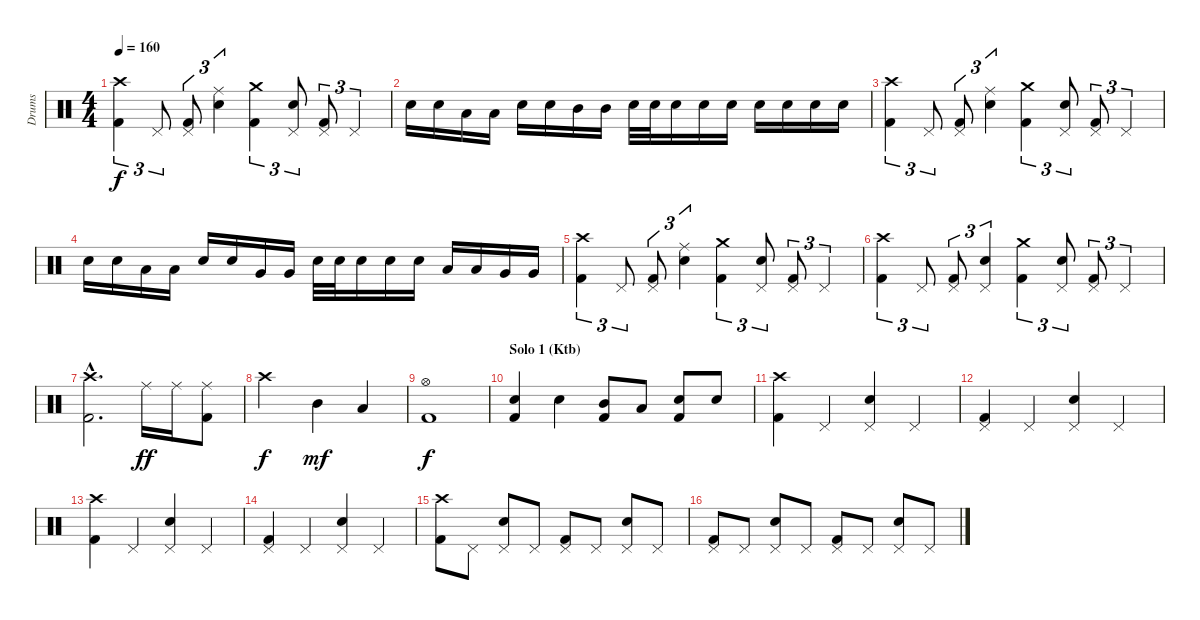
\track ("Drums" "Drums") {instrument percussion}
\staff {score}
\articulation defaults
\ts (4 4)
\tempo 160
\clef neutral
\ks c
("Crash high (hit)" "Kick (hit) 2").4{tu (3 2) dy f} "Pedal Hi-Hat (hit)".8{tu (3 2)} ("Pedal Hi-Hat (hit)" "Kick (hit) 2").8{tu (3 2)} ("Ride (middle)" "Electric Snare (hit)").4{tu (3 2)} ("Crash medium (hit)" "Kick (hit) 2").4{tu (3 2)} ("Pedal Hi-Hat (hit)" "Electric Snare (hit)").8{tu (3 2)} ("Pedal Hi-Hat (hit)" "Kick (hit) 2").8{tu (3 2)} "Pedal Hi-Hat (hit)".4{tu (3 2)} |
"Electric Snare (hit)".16 "Electric Snare (hit)".16 "Low Tom (hit)".16 "Low Tom (hit)".16 "Electric Snare (hit)".16 "Electric Snare (hit)".16 "Mid Tom (hit)".16 "Mid Tom (hit)".16 "Electric Snare (hit)".32 "Electric Snare (hit)".32 "Electric Snare (hit)".16 "Electric Snare (hit)".16 "Electric Snare (hit)".16 "Electric Snare (hit)".16 "Electric Snare (hit)".16 "Electric Snare (hit)".16 "Electric Snare (hit)".16 |
("Crash high (hit)" "Kick (hit) 2").4{tu (3 2)} "Pedal Hi-Hat (hit)".8{tu (3 2)} ("Pedal Hi-Hat (hit)" "Kick (hit) 2").8{tu (3 2)} ("Ride (middle)" "Electric Snare (hit)").4{tu (3 2)} ("Crash medium (hit)" "Kick (hit) 2").4{tu (3 2)} ("Pedal Hi-Hat (hit)" "Electric Snare (hit)").8{tu (3 2)} ("Pedal Hi-Hat (hit)" "Kick (hit) 2").8{tu (3 2)} "Pedal Hi-Hat (hit)".4{tu (3 2)} |
"Electric Snare (hit)".16 "Electric Snare (hit)".16 "Low Tom (hit)".16 "Low Tom (hit)".16 "Electric Snare (hit)".16 "Electric Snare (hit)".16 "Very Low Tom (hit)".16 "Very Low Tom (hit)".16 "Electric Snare (hit)".32 "Electric Snare (hit)".32 "Electric Snare (hit)".16 "Electric Snare (hit)".16 "Electric Snare (hit)".16 "Low Tom (hit)".16 "Low Tom (hit)".16 "Very Low Tom (hit)".16 "Very Low Tom (hit)".16 |
("Crash high (hit)" "Kick (hit) 2").4{tu (3 2)} "Pedal Hi-Hat (hit)".8{tu (3 2)} ("Pedal Hi-Hat (hit)" "Kick (hit) 2").8{tu (3 2)} ("Ride (middle)" "Electric Snare (hit)").4{tu (3 2)} ("Crash medium (hit)" "Kick (hit) 2").4{tu (3 2)} ("Pedal Hi-Hat (hit)" "Electric Snare (hit)").8{tu (3 2)} ("Pedal Hi-Hat (hit)" "Kick (hit) 2").8{tu (3 2)} "Pedal Hi-Hat (hit)".4{tu (3 2)} |
("Crash high (hit)" "Kick (hit) 2").4{tu (3 2)} "Pedal Hi-Hat (hit)".8{tu (3 2)} ("Pedal Hi-Hat (hit)" "Kick (hit) 2").8{tu (3 2)} ("Pedal Hi-Hat (hit)" "Electric Snare (hit)").4{tu (3 2)} ("Crash medium (hit)" "Kick (hit) 2").4{tu (3 2)} ("Pedal Hi-Hat (hit)" "Electric Snare (hit)").8{tu (3 2)} ("Pedal Hi-Hat (hit)" "Kick (hit) 2").8{tu (3 2)} "Pedal Hi-Hat (hit)".4{tu (3 2)} |
("Crash high (hit)"{hac} "Kick (hit) 2"{hac}).2{d} "Ride (middle)".16{dy ff} "Ride (middle)".16 ("Ride (middle)" "Kick (hit) 2").8 |
"Crash high (hit)".2{dy f} "Mid Tom (hit)".4{dy mf} "Low Tom (hit)".4 |
("Hi-Hat (open)" "Kick (hit) 2").1{dy f} |
\section ("" "Solo 1 (Ktb)")
("Electric Snare (hit)" "Kick (hit) 2").4 "Electric Snare (hit)".4 ("Mid Tom (hit)" "Kick (hit) 2").8 "Low Tom (hit)".8 ("Electric Snare (hit)" "Kick (hit) 2").8 "Electric Snare (hit)".8 |
("Crash high (hit)" "Kick (hit) 2").4 "Pedal Hi-Hat (hit)".4 ("Pedal Hi-Hat (hit)" "Electric Snare (hit)").4 "Pedal Hi-Hat (hit)".4 |
("Pedal Hi-Hat (hit)" "Kick (hit) 2").4 "Pedal Hi-Hat (hit)".4 ("Pedal Hi-Hat (hit)" "Electric Snare (hit)").4 "Pedal Hi-Hat (hit)".4 |
("Crash high (hit)" "Kick (hit) 2").4 "Pedal Hi-Hat (hit)".4 ("Pedal Hi-Hat (hit)" "Electric Snare (hit)").4 "Pedal Hi-Hat (hit)".4 |
("Pedal Hi-Hat (hit)" "Kick (hit) 2").4 "Pedal Hi-Hat (hit)".4 ("Pedal Hi-Hat (hit)" "Electric Snare (hit)").4 "Pedal Hi-Hat (hit)".4 |
("Crash high (hit)" "Kick (hit) 2").8 "Pedal Hi-Hat (hit)".8 ("Pedal Hi-Hat (hit)" "Electric Snare (hit)").8 "Pedal Hi-Hat (hit)".8 ("Pedal Hi-Hat (hit)" "Kick (hit) 2").8 "Pedal Hi-Hat (hit)".8 ("Pedal Hi-Hat (hit)" "Electric Snare (hit)").8 "Pedal Hi-Hat (hit)".8 |
("Pedal Hi-Hat (hit)" "Kick (hit) 2").8 "Pedal Hi-Hat (hit)".8 ("Pedal Hi-Hat (hit)" "Electric Snare (hit)").8 "Pedal Hi-Hat (hit)".8 ("Pedal Hi-Hat (hit)" "Kick (hit) 2").8 "Pedal Hi-Hat (hit)".8 ("Pedal Hi-Hat (hit)" "Electric Snare (hit)").8 "Pedal Hi-Hat (hit)".8
